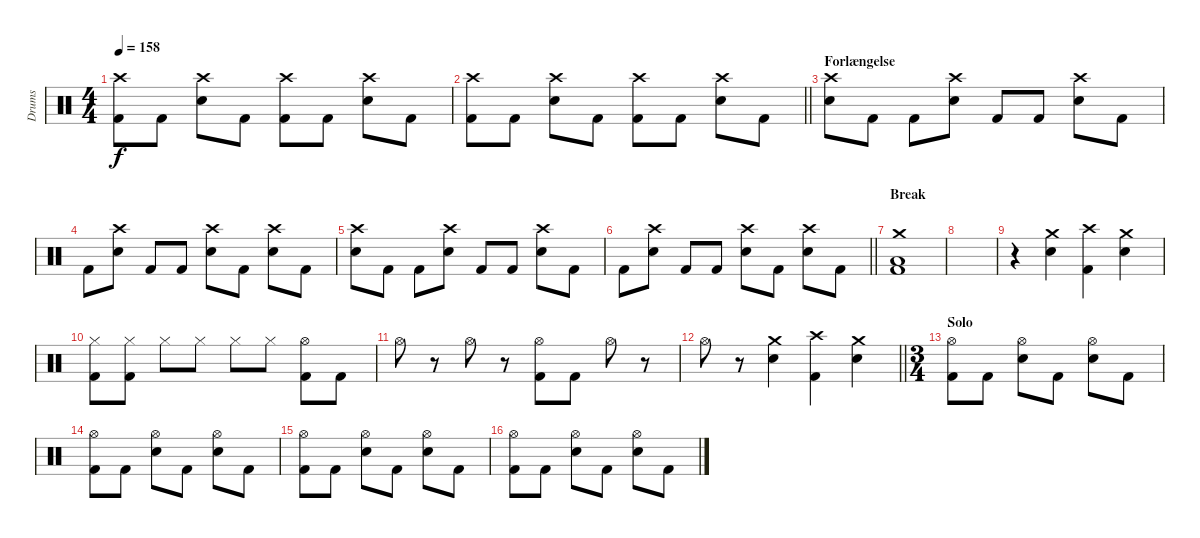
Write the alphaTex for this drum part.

\track ("Drums" "Drums") {instrument percussion}
\staff {score}
\articulation defaults
\ts (4 4)
\tempo 158
\clef neutral
\ks c
("Crash high (hit)" "Kick (hit) 2").8{dy f} "Kick (hit) 2".8 ("Crash high (hit)" "Electric Snare (hit)").8 "Kick (hit) 2".8 ("Crash high (hit)" "Kick (hit) 2").8 "Kick (hit) 2".8 ("Crash high (hit)" "Electric Snare (hit)").8 "Kick (hit) 2".8 |
\barLineRight lightlight
("Crash high (hit)" "Kick (hit) 2").8 "Kick (hit) 2".8 ("Crash high (hit)" "Electric Snare (hit)").8 "Kick (hit) 2".8 ("Crash high (hit)" "Kick (hit) 2").8 "Kick (hit) 2".8 ("Crash high (hit)" "Electric Snare (hit)").8 "Kick (hit) 2".8 |
\section ("" "Forlængelse")
("Crash high (hit)" "Electric Snare (hit)").8 "Kick (hit) 2".8 "Kick (hit) 2".8 ("Crash high (hit)" "Electric Snare (hit)").8 "Kick (hit) 2".8 "Kick (hit) 2".8 ("Crash high (hit)" "Electric Snare (hit)").8 "Kick (hit) 2".8 |
"Kick (hit) 2".8 ("Crash high (hit)" "Electric Snare (hit)").8 "Kick (hit) 2".8 "Kick (hit) 2".8 ("Crash high (hit)" "Electric Snare (hit)").8 "Kick (hit) 2".8 ("Crash high (hit)" "Electric Snare (hit)").8 "Kick (hit) 2".8 |
("Crash high (hit)" "Electric Snare (hit)").8 "Kick (hit) 2".8 "Kick (hit) 2".8 ("Crash high (hit)" "Electric Snare (hit)").8 "Kick (hit) 2".8 "Kick (hit) 2".8 ("Crash high (hit)" "Electric Snare (hit)").8 "Kick (hit) 2".8 |
\barLineRight lightlight "Kick (hit) 2".8
("Crash high (hit)" "Electric Snare (hit)").8 "Kick (hit) 2".8 "Kick (hit) 2".8 ("Crash high (hit)" "Electric Snare (hit)").8 "Kick (hit) 2".8 ("Crash high (hit)" "Electric Snare (hit)").8 "Kick (hit) 2".8 |
\section ("" "Break")
("Crash medium (hit)" "Low Floor Tom (hit)" "Kick (hit) 2").1 |
|
r.4 ("Crash medium (hit)" "Electric Snare (hit)").4 ("Crash high (hit)" "Kick (hit) 2").4 ("Crash medium (hit)" "Electric Snare (hit)").4 |
("Hi-Hat (closed)" "Kick (hit) 2").8 ("Hi-Hat (closed)" "Kick (hit) 2").8 "Hi-Hat (closed)".8 "Hi-Hat (closed)".8 "Hi-Hat (closed)".8 "Hi-Hat (closed)".8 ("Hi-Hat (open)" "Kick (hit) 2").8 "Kick (hit) 2".8 |
"Hi-Hat (open)".8 r.8 "Hi-Hat (open)".8 r.8 ("Hi-Hat (open)" "Kick (hit) 2").8 "Kick (hit) 2".8 "Hi-Hat (open)".8 r.8 |
\barLineRight lightlight "Hi-Hat (open)".8
r.8 ("Crash medium (hit)" "Electric Snare (hit)").4 ("Crash high (hit)" "Kick (hit) 2").4 ("Crash medium (hit)" "Electric Snare (hit)").4 |
\ts (3 4)
\section ("" "Solo")
("Hi-Hat (open)" "Kick (hit) 2").8 "Kick (hit) 2".8 ("Hi-Hat (open)" "Electric Snare (hit)").8 "Kick (hit) 2".8 ("Hi-Hat (open)" "Electric Snare (hit)").8 "Kick (hit) 2".8 |
("Hi-Hat (open)" "Kick (hit) 2").8 "Kick (hit) 2".8 ("Hi-Hat (open)" "Electric Snare (hit)").8 "Kick (hit) 2".8 ("Hi-Hat (open)" "Electric Snare (hit)").8 "Kick (hit) 2".8 |
("Hi-Hat (open)" "Kick (hit) 2").8 "Kick (hit) 2".8 ("Hi-Hat (open)" "Electric Snare (hit)").8 "Kick (hit) 2".8 ("Hi-Hat (open)" "Electric Snare (hit)").8 "Kick (hit) 2".8 |
("Hi-Hat (open)" "Kick (hit) 2").8 "Kick (hit) 2".8 ("Hi-Hat (open)" "Electric Snare (hit)").8 "Kick (hit) 2".8 ("Hi-Hat (open)" "Electric Snare (hit)").8 "Kick (hit) 2".8
